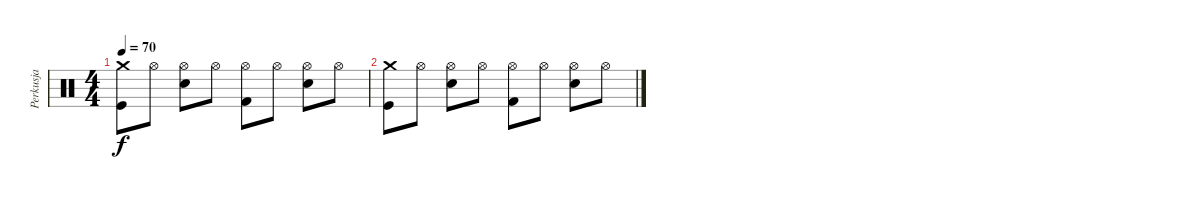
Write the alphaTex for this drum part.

\track ("Perkusja" "Perkusja") {instrument percussion}
\staff {score}
\articulation defaults
\ts (4 4)
\tempo 70
\clef neutral
\ks c
("Crash medium (hit)" "Kick (hit)").8{dy f} "Hi-Hat (open)".8 ("Hi-Hat (open)" "Snare (hit) 2").8 "Hi-Hat (open)".8 ("Hi-Hat (open)" "Kick (hit) 2").8 "Hi-Hat (open)".8 ("Hi-Hat (open)" "Snare (hit) 2").8 "Hi-Hat (open)".8 |
("Crash medium (hit)" "Kick (hit)").8 "Hi-Hat (open)".8 ("Hi-Hat (open)" "Snare (hit) 2").8 "Hi-Hat (open)".8 ("Hi-Hat (open)" "Kick (hit) 2").8 "Hi-Hat (open)".8 ("Hi-Hat (open)" "Snare (hit) 2").8 "Hi-Hat (open)".8
